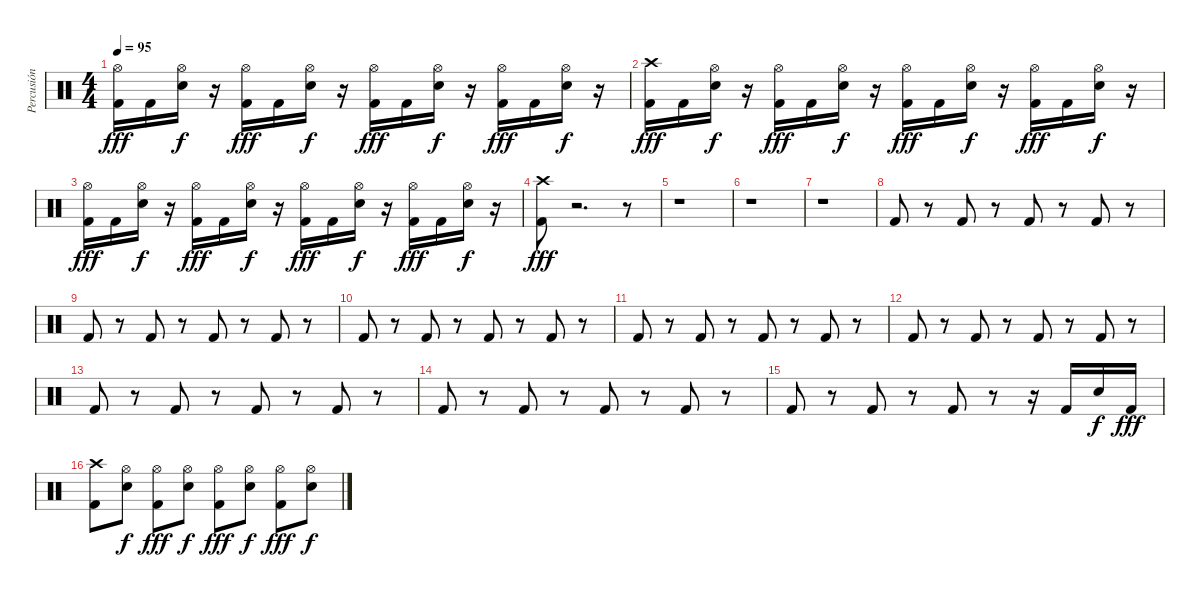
\track ("Percusión" "Percusión") {instrument percussion}
\staff {score}
\articulation defaults
\ts (4 4)
\tempo 95
\clef neutral
\ks c
("Kick (hit) 2" "Hi-Hat (open)").16{dy fff} "Kick (hit) 2".16 ("Electric Snare (hit)" "Hi-Hat (open)").16{dy f} r.16 ("Kick (hit) 2" "Hi-Hat (open)").16{dy fff} "Kick (hit) 2".16 ("Electric Snare (hit)" "Hi-Hat (open)").16{dy f} r.16 ("Kick (hit) 2" "Hi-Hat (open)").16{dy fff} "Kick (hit) 2".16 ("Electric Snare (hit)" "Hi-Hat (open)").16{dy f} r.16 ("Kick (hit) 2" "Hi-Hat (open)").16{dy fff} "Kick (hit) 2".16 ("Electric Snare (hit)" "Hi-Hat (open)").16{dy f} r.16 |
("Kick (hit) 2" "Crash high (hit)").16{dy fff} "Kick (hit) 2".16 ("Electric Snare (hit)" "Hi-Hat (open)").16{dy f} r.16 ("Kick (hit) 2" "Hi-Hat (open)").16{dy fff} "Kick (hit) 2".16 ("Electric Snare (hit)" "Hi-Hat (open)").16{dy f} r.16 ("Kick (hit) 2" "Hi-Hat (open)").16{dy fff} "Kick (hit) 2".16 ("Electric Snare (hit)" "Hi-Hat (open)").16{dy f} r.16 ("Kick (hit) 2" "Hi-Hat (open)").16{dy fff} "Kick (hit) 2".16 ("Electric Snare (hit)" "Hi-Hat (open)").16{dy f} r.16 |
("Kick (hit) 2" "Hi-Hat (open)").16{dy fff} "Kick (hit) 2".16 ("Electric Snare (hit)" "Hi-Hat (open)").16{dy f} r.16 ("Kick (hit) 2" "Hi-Hat (open)").16{dy fff} "Kick (hit) 2".16 ("Electric Snare (hit)" "Hi-Hat (open)").16{dy f} r.16 ("Kick (hit) 2" "Hi-Hat (open)").16{dy fff} "Kick (hit) 2".16 ("Electric Snare (hit)" "Hi-Hat (open)").16{dy f} r.16 ("Kick (hit) 2" "Hi-Hat (open)").16{dy fff} "Kick (hit) 2".16 ("Electric Snare (hit)" "Hi-Hat (open)").16{dy f} r.16 |
("Crash high (hit)" "Kick (hit) 2").8{dy fff} r.2{d} r.8 |
r.1 |
r.1 |
r.1 |
"Kick (hit) 2".8 r.8 "Kick (hit) 2".8 r.8 "Kick (hit) 2".8 r.8 "Kick (hit) 2".8 r.8 |
"Kick (hit) 2".8 r.8 "Kick (hit) 2".8 r.8 "Kick (hit) 2".8 r.8 "Kick (hit) 2".8 r.8 |
"Kick (hit) 2".8 r.8 "Kick (hit) 2".8 r.8 "Kick (hit) 2".8 r.8 "Kick (hit) 2".8 r.8 |
"Kick (hit) 2".8 r.8 "Kick (hit) 2".8 r.8 "Kick (hit) 2".8 r.8 "Kick (hit) 2".8 r.8 |
"Kick (hit) 2".8 r.8 "Kick (hit) 2".8 r.8 "Kick (hit) 2".8 r.8 "Kick (hit) 2".8 r.8 |
"Kick (hit) 2".8 r.8 "Kick (hit) 2".8 r.8 "Kick (hit) 2".8 r.8 "Kick (hit) 2".8 r.8 |
"Kick (hit) 2".8 r.8 "Kick (hit) 2".8 r.8 "Kick (hit) 2".8 r.8 "Kick (hit) 2".8 r.8 |
"Kick (hit) 2".8 r.8 "Kick (hit) 2".8 r.8 "Kick (hit) 2".8 r.8 r.16 "Kick (hit) 2".16 "Electric Snare (hit)".16{dy f} "Kick (hit) 2".16{dy fff} |
("Kick (hit) 2" "Crash high (hit)").8 ("Electric Snare (hit)" "Hi-Hat (open)").8{dy f} ("Kick (hit) 2" "Hi-Hat (open)").8{dy fff} ("Electric Snare (hit)" "Hi-Hat (open)").8{dy f} ("Kick (hit) 2" "Hi-Hat (open)").8{dy fff} ("Electric Snare (hit)" "Hi-Hat (open)").8{dy f} ("Kick (hit) 2" "Hi-Hat (open)").8{dy fff} ("Electric Snare (hit)" "Hi-Hat (open)").8{dy f}
